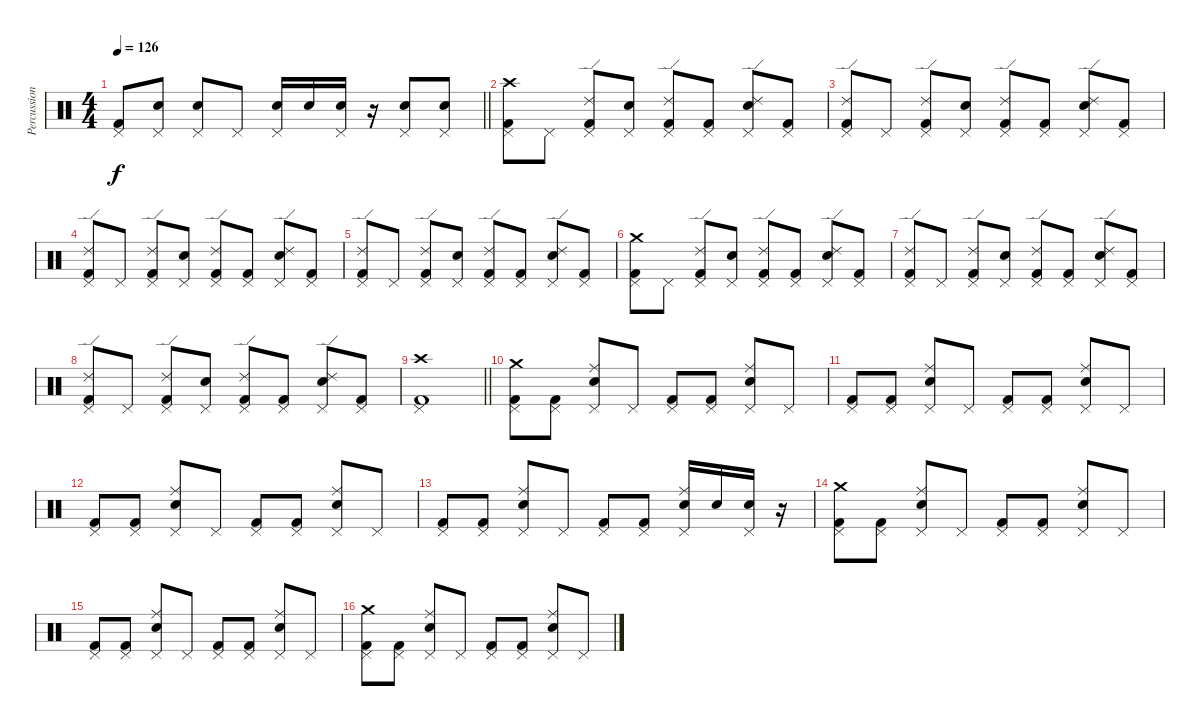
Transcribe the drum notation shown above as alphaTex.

\track ("Percussion" "Percussion") {instrument percussion}
\staff {score}
\articulation defaults
\ts (4 4)
\tempo 126
\clef neutral
\barLineRight lightlight
\ks c
("Pedal Hi-Hat (hit)" "Kick (hit) 2").8{dy f} ("Pedal Hi-Hat (hit)" "Snare (hit) 2").8 ("Pedal Hi-Hat (hit)" "Snare (hit) 2").8 "Pedal Hi-Hat (hit)".8 ("Pedal Hi-Hat (hit)" "Snare (hit) 2").16 "Snare (hit) 2".16 ("Pedal Hi-Hat (hit)" "Snare (hit) 2").16 r.16 ("Pedal Hi-Hat (hit)" "Snare (hit) 2").8 ("Pedal Hi-Hat (hit)" "Snare (hit) 2").8 |
("Pedal Hi-Hat (hit)" "Crash high (hit)" "Kick (hit) 2").8 "Pedal Hi-Hat (hit)".8 ("Pedal Hi-Hat (hit)" "Ride (edge) 2" "Kick (hit) 2").8 ("Pedal Hi-Hat (hit)" "Snare (hit) 2").8 ("Pedal Hi-Hat (hit)" "Ride (edge) 2" "Kick (hit) 2").8 ("Pedal Hi-Hat (hit)" "Kick (hit) 2").8 ("Pedal Hi-Hat (hit)" "Ride (edge) 2" "Snare (hit) 2").8 ("Pedal Hi-Hat (hit)" "Kick (hit) 2").8 |
("Pedal Hi-Hat (hit)" "Ride (edge) 2" "Kick (hit) 2").8 "Pedal Hi-Hat (hit)".8 ("Pedal Hi-Hat (hit)" "Ride (edge) 2" "Kick (hit) 2").8 ("Pedal Hi-Hat (hit)" "Snare (hit) 2").8 ("Pedal Hi-Hat (hit)" "Ride (edge) 2" "Kick (hit) 2").8 ("Pedal Hi-Hat (hit)" "Kick (hit) 2").8 ("Pedal Hi-Hat (hit)" "Ride (edge) 2" "Snare (hit) 2").8 ("Pedal Hi-Hat (hit)" "Kick (hit) 2").8 |
("Pedal Hi-Hat (hit)" "Ride (edge) 2" "Kick (hit) 2").8 "Pedal Hi-Hat (hit)".8 ("Pedal Hi-Hat (hit)" "Ride (edge) 2" "Kick (hit) 2").8 ("Pedal Hi-Hat (hit)" "Snare (hit) 2").8 ("Pedal Hi-Hat (hit)" "Ride (edge) 2" "Kick (hit) 2").8 ("Pedal Hi-Hat (hit)" "Kick (hit) 2").8 ("Pedal Hi-Hat (hit)" "Ride (edge) 2" "Snare (hit) 2").8 ("Pedal Hi-Hat (hit)" "Kick (hit) 2").8 |
("Pedal Hi-Hat (hit)" "Ride (edge) 2" "Kick (hit) 2").8 "Pedal Hi-Hat (hit)".8 ("Pedal Hi-Hat (hit)" "Ride (edge) 2" "Kick (hit) 2").8 ("Pedal Hi-Hat (hit)" "Snare (hit) 2").8 ("Pedal Hi-Hat (hit)" "Ride (edge) 2" "Kick (hit) 2").8 ("Pedal Hi-Hat (hit)" "Kick (hit) 2").8 ("Pedal Hi-Hat (hit)" "Ride (edge) 2" "Snare (hit) 2").8 ("Pedal Hi-Hat (hit)" "Kick (hit) 2").8 |
("Pedal Hi-Hat (hit)" "Crash medium (hit)" "Kick (hit) 2").8 "Pedal Hi-Hat (hit)".8 ("Pedal Hi-Hat (hit)" "Ride (edge) 2" "Kick (hit) 2").8 ("Pedal Hi-Hat (hit)" "Snare (hit) 2").8 ("Pedal Hi-Hat (hit)" "Ride (edge) 2" "Kick (hit) 2").8 ("Pedal Hi-Hat (hit)" "Kick (hit) 2").8 ("Pedal Hi-Hat (hit)" "Ride (edge) 2" "Snare (hit) 2").8 ("Pedal Hi-Hat (hit)" "Kick (hit) 2").8 |
("Pedal Hi-Hat (hit)" "Ride (edge) 2" "Kick (hit) 2").8 "Pedal Hi-Hat (hit)".8 ("Pedal Hi-Hat (hit)" "Ride (edge) 2" "Kick (hit) 2").8 ("Pedal Hi-Hat (hit)" "Snare (hit) 2").8 ("Pedal Hi-Hat (hit)" "Ride (edge) 2" "Kick (hit) 2").8 ("Pedal Hi-Hat (hit)" "Kick (hit) 2").8 ("Pedal Hi-Hat (hit)" "Ride (edge) 2" "Snare (hit) 2").8 ("Pedal Hi-Hat (hit)" "Kick (hit) 2").8 |
("Pedal Hi-Hat (hit)" "Ride (edge) 2" "Kick (hit) 2").8 "Pedal Hi-Hat (hit)".8 ("Pedal Hi-Hat (hit)" "Ride (edge) 2" "Kick (hit) 2").8 ("Pedal Hi-Hat (hit)" "Snare (hit) 2").8 ("Pedal Hi-Hat (hit)" "Ride (edge) 2" "Kick (hit) 2").8 ("Pedal Hi-Hat (hit)" "Kick (hit) 2").8 ("Pedal Hi-Hat (hit)" "Ride (edge) 2" "Snare (hit) 2").8 ("Pedal Hi-Hat (hit)" "Kick (hit) 2").8 |
\barLineRight lightlight
("Pedal Hi-Hat (hit)" "Crash high (hit)" "Kick (hit) 2").1 |
("Pedal Hi-Hat (hit)" "Crash medium (hit)" "Kick (hit) 2").8 ("Pedal Hi-Hat (hit)" "Kick (hit) 2").8 ("Pedal Hi-Hat (hit)" "Ride (middle)" "Snare (hit) 2").8 "Pedal Hi-Hat (hit)".8 ("Pedal Hi-Hat (hit)" "Kick (hit) 2").8 ("Pedal Hi-Hat (hit)" "Kick (hit) 2").8 ("Pedal Hi-Hat (hit)" "Ride (middle)" "Snare (hit) 2").8 "Pedal Hi-Hat (hit)".8 |
("Pedal Hi-Hat (hit)" "Kick (hit) 2").8 ("Pedal Hi-Hat (hit)" "Kick (hit) 2").8 ("Pedal Hi-Hat (hit)" "Ride (middle)" "Snare (hit) 2").8 "Pedal Hi-Hat (hit)".8 ("Pedal Hi-Hat (hit)" "Kick (hit) 2").8 ("Pedal Hi-Hat (hit)" "Kick (hit) 2").8 ("Pedal Hi-Hat (hit)" "Ride (middle)" "Snare (hit) 2").8 "Pedal Hi-Hat (hit)".8 |
("Pedal Hi-Hat (hit)" "Kick (hit) 2").8 ("Pedal Hi-Hat (hit)" "Kick (hit) 2").8 ("Pedal Hi-Hat (hit)" "Ride (middle)" "Snare (hit) 2").8 "Pedal Hi-Hat (hit)".8 ("Pedal Hi-Hat (hit)" "Kick (hit) 2").8 ("Pedal Hi-Hat (hit)" "Kick (hit) 2").8 ("Pedal Hi-Hat (hit)" "Ride (middle)" "Snare (hit) 2").8 "Pedal Hi-Hat (hit)".8 |
("Pedal Hi-Hat (hit)" "Kick (hit) 2").8 ("Pedal Hi-Hat (hit)" "Kick (hit) 2").8 ("Pedal Hi-Hat (hit)" "Ride (middle)" "Snare (hit) 2").8 "Pedal Hi-Hat (hit)".8 ("Pedal Hi-Hat (hit)" "Kick (hit) 2").8 ("Pedal Hi-Hat (hit)" "Kick (hit) 2").8 ("Pedal Hi-Hat (hit)" "Ride (middle)" "Snare (hit) 2").16 "Snare (hit) 2".16 ("Pedal Hi-Hat (hit)" "Snare (hit) 2").16 r.16 |
("Pedal Hi-Hat (hit)" "Crash medium (hit)" "Kick (hit) 2").8 ("Pedal Hi-Hat (hit)" "Kick (hit) 2").8 ("Pedal Hi-Hat (hit)" "Ride (middle)" "Snare (hit) 2").8 "Pedal Hi-Hat (hit)".8 ("Pedal Hi-Hat (hit)" "Kick (hit) 2").8 ("Pedal Hi-Hat (hit)" "Kick (hit) 2").8 ("Pedal Hi-Hat (hit)" "Ride (middle)" "Snare (hit) 2").8 "Pedal Hi-Hat (hit)".8 |
("Pedal Hi-Hat (hit)" "Kick (hit) 2").8 ("Pedal Hi-Hat (hit)" "Kick (hit) 2").8 ("Pedal Hi-Hat (hit)" "Ride (middle)" "Snare (hit) 2").8 "Pedal Hi-Hat (hit)".8 ("Pedal Hi-Hat (hit)" "Kick (hit) 2").8 ("Pedal Hi-Hat (hit)" "Kick (hit) 2").8 ("Pedal Hi-Hat (hit)" "Ride (middle)" "Snare (hit) 2").8 "Pedal Hi-Hat (hit)".8 |
("Pedal Hi-Hat (hit)" "Crash medium (hit)" "Kick (hit) 2").8 ("Pedal Hi-Hat (hit)" "Kick (hit) 2").8 ("Pedal Hi-Hat (hit)" "Ride (middle)" "Snare (hit) 2").8 "Pedal Hi-Hat (hit)".8 ("Pedal Hi-Hat (hit)" "Kick (hit) 2").8 ("Pedal Hi-Hat (hit)" "Kick (hit) 2").8 ("Pedal Hi-Hat (hit)" "Ride (middle)" "Snare (hit) 2").8 "Pedal Hi-Hat (hit)".8
